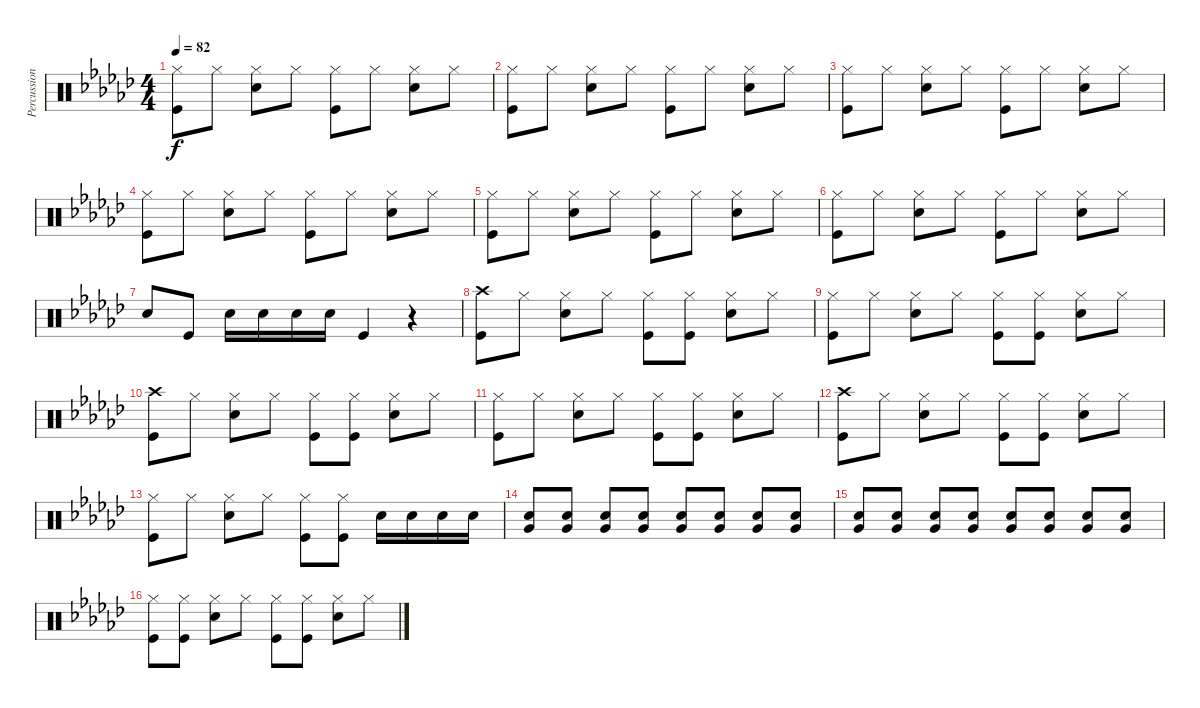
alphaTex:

\track ("Percussions" "Percussion") {instrument percussion}
\staff {score}
\articulation defaults
\ts (4 4)
\tempo 82
\clef neutral
\ks ebminor
("Kick (hit)" "Hi-Hat (closed)").8{dy f} "Hi-Hat (closed)".8 ("Hi-Hat (closed)" "Snare (hit) 2").8 "Hi-Hat (closed)".8 ("Hi-Hat (closed)" "Kick (hit)").8 "Hi-Hat (closed)".8 ("Hi-Hat (closed)" "Snare (hit) 2").8 "Hi-Hat (closed)".8 |
("Kick (hit)" "Hi-Hat (closed)").8 "Hi-Hat (closed)".8 ("Hi-Hat (closed)" "Snare (hit) 2").8 "Hi-Hat (closed)".8 ("Hi-Hat (closed)" "Kick (hit)").8 "Hi-Hat (closed)".8 ("Hi-Hat (closed)" "Snare (hit) 2").8 "Hi-Hat (closed)".8 |
("Kick (hit)" "Hi-Hat (closed)").8 "Hi-Hat (closed)".8 ("Hi-Hat (closed)" "Snare (hit) 2").8 "Hi-Hat (closed)".8 ("Hi-Hat (closed)" "Kick (hit)").8 "Hi-Hat (closed)".8 ("Hi-Hat (closed)" "Snare (hit) 2").8 "Hi-Hat (closed)".8 |
("Kick (hit)" "Hi-Hat (closed)").8 "Hi-Hat (closed)".8 ("Hi-Hat (closed)" "Snare (hit) 2").8 "Hi-Hat (closed)".8 ("Hi-Hat (closed)" "Kick (hit)").8 "Hi-Hat (closed)".8 ("Hi-Hat (closed)" "Snare (hit) 2").8 "Hi-Hat (closed)".8 |
("Kick (hit)" "Hi-Hat (closed)").8 "Hi-Hat (closed)".8 ("Hi-Hat (closed)" "Snare (hit) 2").8 "Hi-Hat (closed)".8 ("Hi-Hat (closed)" "Kick (hit)").8 "Hi-Hat (closed)".8 ("Hi-Hat (closed)" "Snare (hit) 2").8 "Hi-Hat (closed)".8 |
("Kick (hit)" "Hi-Hat (closed)").8 "Hi-Hat (closed)".8 ("Hi-Hat (closed)" "Snare (hit) 2").8 "Hi-Hat (closed)".8 ("Hi-Hat (closed)" "Kick (hit)").8 "Hi-Hat (closed)".8 ("Hi-Hat (closed)" "Snare (hit) 2").8 "Hi-Hat (closed)".8 |
"Snare (hit) 2".8 "Kick (hit)".8 "Snare (hit) 2".16 "Snare (hit) 2".16 "Snare (hit) 2".16 "Snare (hit) 2".16 "Kick (hit)".4 r.4 |
("Crash high (hit)" "Kick (hit)").8 "Hi-Hat (closed)".8 ("Hi-Hat (closed)" "Snare (hit) 2").8 "Hi-Hat (closed)".8 ("Hi-Hat (closed)" "Kick (hit)").8 ("Hi-Hat (closed)" "Kick (hit)").8 ("Hi-Hat (closed)" "Snare (hit) 2").8 "Hi-Hat (closed)".8 |
("Kick (hit)" "Hi-Hat (closed)").8 "Hi-Hat (closed)".8 ("Hi-Hat (closed)" "Snare (hit) 2").8 "Hi-Hat (closed)".8 ("Hi-Hat (closed)" "Kick (hit)").8 ("Hi-Hat (closed)" "Kick (hit)").8 ("Hi-Hat (closed)" "Snare (hit) 2").8 "Hi-Hat (closed)".8 |
("Crash high (hit)" "Kick (hit)").8 "Hi-Hat (closed)".8 ("Hi-Hat (closed)" "Snare (hit) 2").8 "Hi-Hat (closed)".8 ("Hi-Hat (closed)" "Kick (hit)").8 ("Hi-Hat (closed)" "Kick (hit)").8 ("Hi-Hat (closed)" "Snare (hit) 2").8 "Hi-Hat (closed)".8 |
("Kick (hit)" "Hi-Hat (closed)").8 "Hi-Hat (closed)".8 ("Hi-Hat (closed)" "Snare (hit) 2").8 "Hi-Hat (closed)".8 ("Hi-Hat (closed)" "Kick (hit)").8 ("Hi-Hat (closed)" "Kick (hit)").8 ("Hi-Hat (closed)" "Snare (hit) 2").8 "Hi-Hat (closed)".8 |
("Crash high (hit)" "Kick (hit)").8 "Hi-Hat (closed)".8 ("Hi-Hat (closed)" "Snare (hit) 2").8 "Hi-Hat (closed)".8 ("Hi-Hat (closed)" "Kick (hit)").8 ("Hi-Hat (closed)" "Kick (hit)").8 ("Hi-Hat (closed)" "Snare (hit) 2").8 "Hi-Hat (closed)".8 |
("Kick (hit)" "Hi-Hat (closed)").8 "Hi-Hat (closed)".8 ("Hi-Hat (closed)" "Snare (hit) 2").8 "Hi-Hat (closed)".8 ("Hi-Hat (closed)" "Kick (hit)").8 ("Hi-Hat (closed)" "Kick (hit)").8 "Snare (hit) 2".16 "Snare (hit) 2".16 "Snare (hit) 2".16 "Snare (hit) 2".16 |
("Very Low Tom (hit)" "Snare (hit) 2").8 ("Snare (hit) 2" "Very Low Tom (hit)").8 ("Very Low Tom (hit)" "Snare (hit) 2").8 ("Snare (hit) 2" "Very Low Tom (hit)").8 ("Snare (hit) 2" "Very Low Tom (hit)").8 ("Snare (hit) 2" "Very Low Tom (hit)").8 ("Very Low Tom (hit)" "Snare (hit) 2").8 ("Snare (hit) 2" "Very Low Tom (hit)").8 |
("Very Low Tom (hit)" "Snare (hit) 2").8 ("Snare (hit) 2" "Very Low Tom (hit)").8 ("Very Low Tom (hit)" "Snare (hit) 2").8 ("Snare (hit) 2" "Very Low Tom (hit)").8 ("Snare (hit) 2" "Very Low Tom (hit)").8 ("Snare (hit) 2" "Very Low Tom (hit)").8 ("Very Low Tom (hit)" "Snare (hit) 2").8 ("Snare (hit) 2" "Very Low Tom (hit)").8 |
("Kick (hit)" "Hi-Hat (closed)").8 ("Hi-Hat (closed)" "Kick (hit)").8 ("Hi-Hat (closed)" "Snare (hit) 2").8 "Hi-Hat (closed)".8 ("Hi-Hat (closed)" "Kick (hit)").8 ("Hi-Hat (closed)" "Kick (hit)").8 ("Hi-Hat (closed)" "Snare (hit) 2").8 "Hi-Hat (closed)".8
